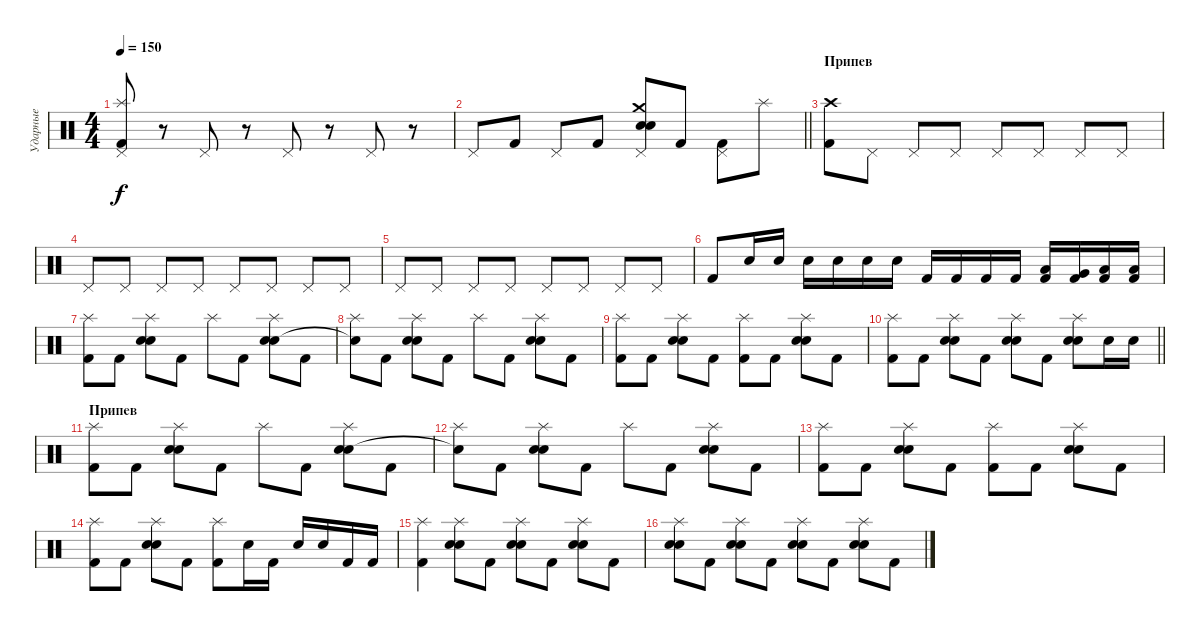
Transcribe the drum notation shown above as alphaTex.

\track ("Ударные" "Ударные") {instrument percussion}
\staff {score}
\articulation defaults
\ts (4 4)
\tempo 150
\clef neutral
\ks c
("Pedal Hi-Hat (hit)" "Splash (hit)" "Kick (hit) 2").8{dy f} r.8 "Pedal Hi-Hat (hit)".8 r.8 "Pedal Hi-Hat (hit)".8 r.8 "Pedal Hi-Hat (hit)".8 r.8 |
\barLineRight lightlight "Pedal Hi-Hat (hit)".8 "Kick (hit) 2".8 "Pedal Hi-Hat (hit)".8 "Kick (hit) 2".8
("Pedal Hi-Hat (hit)" "Crash medium (hit)" "Electric Snare (hit)" "Snare (hit) 2").8 "Kick (hit) 2".8 ("Pedal Hi-Hat (hit)" "Kick (hit) 2").8 "Splash (hit)".8 |
\section ("" "Припев")
("Crash high (hit)" "Kick (hit) 2").8 "Pedal Hi-Hat (hit)".8 "Pedal Hi-Hat (hit)".8 "Pedal Hi-Hat (hit)".8 "Pedal Hi-Hat (hit)".8 "Pedal Hi-Hat (hit)".8 "Pedal Hi-Hat (hit)".8 "Pedal Hi-Hat (hit)".8 |
"Pedal Hi-Hat (hit)".8 "Pedal Hi-Hat (hit)".8 "Pedal Hi-Hat (hit)".8 "Pedal Hi-Hat (hit)".8 "Pedal Hi-Hat (hit)".8 "Pedal Hi-Hat (hit)".8 "Pedal Hi-Hat (hit)".8 "Pedal Hi-Hat (hit)".8 |
"Pedal Hi-Hat (hit)".8 "Pedal Hi-Hat (hit)".8 "Pedal Hi-Hat (hit)".8 "Pedal Hi-Hat (hit)".8 "Pedal Hi-Hat (hit)".8 "Pedal Hi-Hat (hit)".8 "Pedal Hi-Hat (hit)".8 "Pedal Hi-Hat (hit)".8 |
"Kick (hit) 2".8 "Electric Snare (hit)".16 "Electric Snare (hit)".16 "Electric Snare (hit)".16 "Electric Snare (hit)".16 "Electric Snare (hit)".16 "Electric Snare (hit)".16 "Kick (hit) 2".16 "Kick (hit) 2".16 "Kick (hit) 2".16 "Kick (hit) 2".16 ("Low Tom (hit)" "Kick (hit) 2").16 ("Very Low Tom (hit)" "Kick (hit) 2").16 ("Low Tom (hit)" "Kick (hit) 2").16 ("Low Floor Tom (hit)" "Kick (hit) 2").16 |
("Splash (hit)" "Kick (hit) 2").8 "Kick (hit) 2".8 ("Splash (hit)" "Electric Snare (hit)" "Snare (hit) 2").8 "Kick (hit) 2".8 "Splash (hit)".8 "Kick (hit) 2".8 ("Splash (hit)" "Electric Snare (hit)" "Snare (hit) 2").8 "Kick (hit) 2".8 |
("Splash (hit)" "Snare (hit)"{t}).8 "Kick (hit) 2".8 ("Splash (hit)" "Electric Snare (hit)" "Snare (hit) 2").8 "Kick (hit) 2".8 "Splash (hit)".8 "Kick (hit) 2".8 ("Splash (hit)" "Electric Snare (hit)" "Snare (hit) 2").8 "Kick (hit) 2".8 |
("Splash (hit)" "Kick (hit) 2").8 "Kick (hit) 2".8 ("Splash (hit)" "Electric Snare (hit)" "Snare (hit) 2").8 "Kick (hit) 2".8 ("Splash (hit)" "Kick (hit) 2").8 "Kick (hit) 2".8 ("Splash (hit)" "Electric Snare (hit)" "Snare (hit) 2").8 "Kick (hit) 2".8 |
\barLineRight lightlight
("Splash (hit)" "Kick (hit) 2").8 "Kick (hit) 2".8 ("Splash (hit)" "Electric Snare (hit)" "Snare (hit) 2").8 "Kick (hit) 2".8 ("Splash (hit)" "Electric Snare (hit)" "Snare (hit) 2").8 "Kick (hit) 2".8 ("Splash (hit)" "Electric Snare (hit)" "Snare (hit) 2").8 "Electric Snare (hit)".16 "Electric Snare (hit)".16 |
\section ("" "Припев")
("Splash (hit)" "Kick (hit) 2").8 "Kick (hit) 2".8 ("Splash (hit)" "Electric Snare (hit)" "Snare (hit) 2").8 "Kick (hit) 2".8 "Splash (hit)".8 "Kick (hit) 2".8 ("Splash (hit)" "Electric Snare (hit)" "Snare (hit) 2").8 "Kick (hit) 2".8 |
("Splash (hit)" "Snare (hit)"{t}).8 "Kick (hit) 2".8 ("Splash (hit)" "Electric Snare (hit)" "Snare (hit) 2").8 "Kick (hit) 2".8 "Splash (hit)".8 "Kick (hit) 2".8 ("Splash (hit)" "Electric Snare (hit)" "Snare (hit) 2").8 "Kick (hit) 2".8 |
("Splash (hit)" "Kick (hit) 2").8 "Kick (hit) 2".8 ("Splash (hit)" "Electric Snare (hit)" "Snare (hit) 2").8 "Kick (hit) 2".8 ("Splash (hit)" "Kick (hit) 2").8 "Kick (hit) 2".8 ("Splash (hit)" "Electric Snare (hit)" "Snare (hit) 2").8 "Kick (hit) 2".8 |
("Splash (hit)" "Kick (hit) 2").8 "Kick (hit) 2".8 ("Splash (hit)" "Electric Snare (hit)" "Snare (hit) 2").8 "Kick (hit) 2".8 ("Splash (hit)" "Kick (hit) 2").8 "Electric Snare (hit)".16 "Kick (hit) 2".16 "Electric Snare (hit)".16 "Electric Snare (hit)".16 "Kick (hit) 2".16 "Kick (hit) 2".16 |
("Splash (hit)" "Kick (hit) 2").4 ("Splash (hit)" "Electric Snare (hit)" "Snare (hit) 2").8 "Kick (hit) 2".8 ("Splash (hit)" "Electric Snare (hit)" "Snare (hit) 2").8 "Kick (hit) 2".8 ("Splash (hit)" "Electric Snare (hit)" "Snare (hit) 2").8 "Kick (hit) 2".8 |
("Splash (hit)" "Electric Snare (hit)" "Snare (hit) 2").8 "Kick (hit) 2".8 ("Splash (hit)" "Electric Snare (hit)" "Snare (hit) 2").8 "Kick (hit) 2".8 ("Splash (hit)" "Electric Snare (hit)" "Snare (hit) 2").8 "Kick (hit) 2".8 ("Splash (hit)" "Electric Snare (hit)" "Snare (hit) 2").8 "Kick (hit) 2".8
